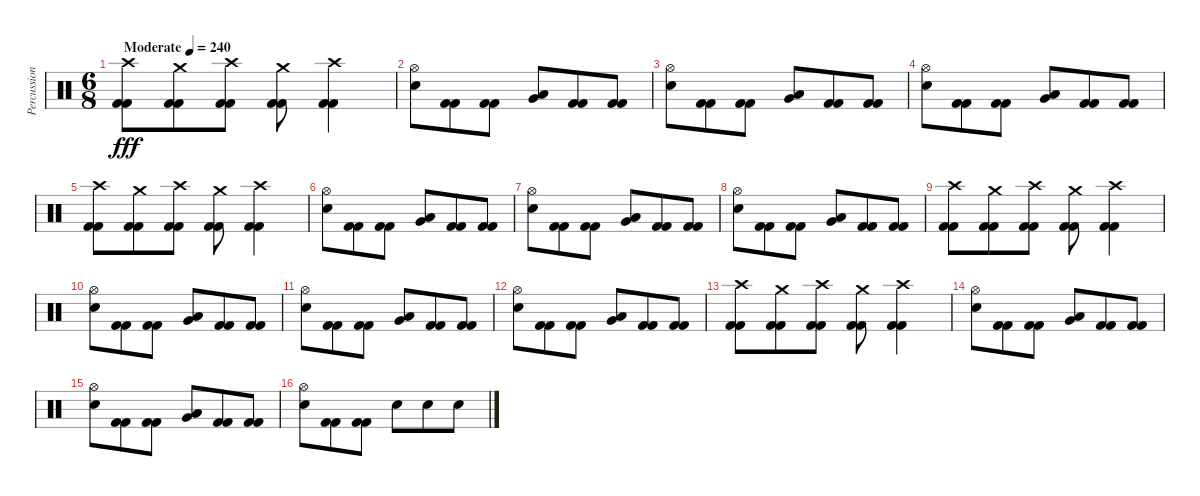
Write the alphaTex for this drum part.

\track ("Percussion" "Percussion") {instrument percussion}
\staff {score}
\articulation defaults
\ts (6 8)
\tempo (240 "Moderate")
\clef neutral
\ks c
("Crash high (hit)" "Kick (hit) 2" "Kick (hit) 2").8{dy fff} ("Crash medium (hit)" "Kick (hit) 2" "Kick (hit) 2").8 ("Crash high (hit)" "Kick (hit) 2" "Kick (hit) 2").8 ("Crash medium (hit)" "Kick (hit) 2" "Kick (hit) 2").8 ("Crash high (hit)" "Kick (hit) 2" "Kick (hit) 2").4 |
("Hi-Hat (open)" "Snare (hit) 2").8 ("Kick (hit) 2" "Kick (hit) 2").8 ("Kick (hit) 2" "Kick (hit) 2").8 ("Very Low Tom (hit)" "Low Tom (hit)").8 ("Kick (hit) 2" "Kick (hit) 2").8 ("Kick (hit) 2" "Kick (hit) 2").8 |
("Hi-Hat (open)" "Snare (hit) 2").8 ("Kick (hit) 2" "Kick (hit) 2").8 ("Kick (hit) 2" "Kick (hit) 2").8 ("Very Low Tom (hit)" "Low Tom (hit)").8 ("Kick (hit) 2" "Kick (hit) 2").8 ("Kick (hit) 2" "Kick (hit) 2").8 |
("Hi-Hat (open)" "Snare (hit) 2").8 ("Kick (hit) 2" "Kick (hit) 2").8 ("Kick (hit) 2" "Kick (hit) 2").8 ("Very Low Tom (hit)" "Low Tom (hit)").8 ("Kick (hit) 2" "Kick (hit) 2").8 ("Kick (hit) 2" "Kick (hit) 2").8 |
("Crash high (hit)" "Kick (hit) 2" "Kick (hit) 2").8 ("Crash medium (hit)" "Kick (hit) 2" "Kick (hit) 2").8 ("Crash high (hit)" "Kick (hit) 2" "Kick (hit) 2").8 ("Crash medium (hit)" "Kick (hit) 2" "Kick (hit) 2").8 ("Crash high (hit)" "Kick (hit) 2" "Kick (hit) 2").4 |
("Hi-Hat (open)" "Snare (hit) 2").8 ("Kick (hit) 2" "Kick (hit) 2").8 ("Kick (hit) 2" "Kick (hit) 2").8 ("Very Low Tom (hit)" "Low Tom (hit)").8 ("Kick (hit) 2" "Kick (hit) 2").8 ("Kick (hit) 2" "Kick (hit) 2").8 |
("Hi-Hat (open)" "Snare (hit) 2").8 ("Kick (hit) 2" "Kick (hit) 2").8 ("Kick (hit) 2" "Kick (hit) 2").8 ("Very Low Tom (hit)" "Low Tom (hit)").8 ("Kick (hit) 2" "Kick (hit) 2").8 ("Kick (hit) 2" "Kick (hit) 2").8 |
("Hi-Hat (open)" "Snare (hit) 2").8 ("Kick (hit) 2" "Kick (hit) 2").8 ("Kick (hit) 2" "Kick (hit) 2").8 ("Very Low Tom (hit)" "Low Tom (hit)").8 ("Kick (hit) 2" "Kick (hit) 2").8 ("Kick (hit) 2" "Kick (hit) 2").8 |
("Crash high (hit)" "Kick (hit) 2" "Kick (hit) 2").8 ("Crash medium (hit)" "Kick (hit) 2" "Kick (hit) 2").8 ("Crash high (hit)" "Kick (hit) 2" "Kick (hit) 2").8 ("Crash medium (hit)" "Kick (hit) 2" "Kick (hit) 2").8 ("Crash high (hit)" "Kick (hit) 2" "Kick (hit) 2").4 |
("Hi-Hat (open)" "Snare (hit) 2").8 ("Kick (hit) 2" "Kick (hit) 2").8 ("Kick (hit) 2" "Kick (hit) 2").8 ("Very Low Tom (hit)" "Low Tom (hit)").8 ("Kick (hit) 2" "Kick (hit) 2").8 ("Kick (hit) 2" "Kick (hit) 2").8 |
("Hi-Hat (open)" "Snare (hit) 2").8 ("Kick (hit) 2" "Kick (hit) 2").8 ("Kick (hit) 2" "Kick (hit) 2").8 ("Very Low Tom (hit)" "Low Tom (hit)").8 ("Kick (hit) 2" "Kick (hit) 2").8 ("Kick (hit) 2" "Kick (hit) 2").8 |
("Hi-Hat (open)" "Snare (hit) 2").8 ("Kick (hit) 2" "Kick (hit) 2").8 ("Kick (hit) 2" "Kick (hit) 2").8 ("Very Low Tom (hit)" "Low Tom (hit)").8 ("Kick (hit) 2" "Kick (hit) 2").8 ("Kick (hit) 2" "Kick (hit) 2").8 |
("Crash high (hit)" "Kick (hit) 2" "Kick (hit) 2").8 ("Crash medium (hit)" "Kick (hit) 2" "Kick (hit) 2").8 ("Crash high (hit)" "Kick (hit) 2" "Kick (hit) 2").8 ("Crash medium (hit)" "Kick (hit) 2" "Kick (hit) 2").8 ("Crash high (hit)" "Kick (hit) 2" "Kick (hit) 2").4 |
("Hi-Hat (open)" "Snare (hit) 2").8 ("Kick (hit) 2" "Kick (hit) 2").8 ("Kick (hit) 2" "Kick (hit) 2").8 ("Very Low Tom (hit)" "Low Tom (hit)").8 ("Kick (hit) 2" "Kick (hit) 2").8 ("Kick (hit) 2" "Kick (hit) 2").8 |
("Hi-Hat (open)" "Snare (hit) 2").8 ("Kick (hit) 2" "Kick (hit) 2").8 ("Kick (hit) 2" "Kick (hit) 2").8 ("Very Low Tom (hit)" "Low Tom (hit)").8 ("Kick (hit) 2" "Kick (hit) 2").8 ("Kick (hit) 2" "Kick (hit) 2").8 |
("Hi-Hat (open)" "Snare (hit) 2").8 ("Kick (hit) 2" "Kick (hit) 2").8 ("Kick (hit) 2" "Kick (hit) 2").8 "Snare (hit) 2".8 "Snare (hit) 2".8 "Snare (hit) 2".8
